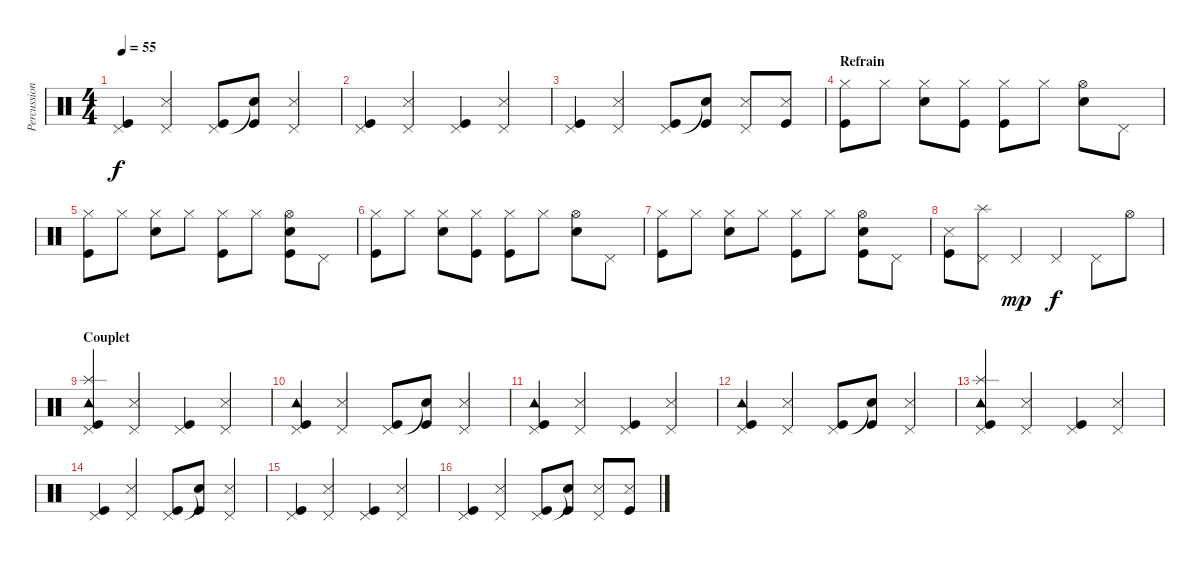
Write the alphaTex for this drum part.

\track ("Percussions" "Percussion") {instrument percussion}
\staff {score}
\articulation defaults
\ts (4 4)
\tempo 55
\clef neutral
\ks c
("Pedal Hi-Hat (hit)" "Kick (hit)").4{dy f} ("Pedal Hi-Hat (hit)" "Snare (side stick) 3").4 ("Pedal Hi-Hat (hit)" "Kick (hit)").8 ("Snare (hit)"{t} "Kick (hit)").8 ("Pedal Hi-Hat (hit)" "Snare (side stick) 3").4 |
("Pedal Hi-Hat (hit)" "Kick (hit)").4 ("Pedal Hi-Hat (hit)" "Snare (side stick) 3").4 ("Pedal Hi-Hat (hit)" "Kick (hit)").4 ("Pedal Hi-Hat (hit)" "Snare (side stick) 3").4 |
("Pedal Hi-Hat (hit)" "Kick (hit)").4 ("Pedal Hi-Hat (hit)" "Snare (side stick) 3").4 ("Pedal Hi-Hat (hit)" "Kick (hit)").8 ("Snare (hit)"{t} "Kick (hit)").8 ("Pedal Hi-Hat (hit)" "Snare (side stick) 3").8 ("Snare (side stick) 3" "Kick (hit)").8 |
\section ("" "Refrain")
("Hi-Hat (closed)" "Kick (hit)").8 "Hi-Hat (closed)".8 ("Hi-Hat (closed)" "Snare (hit) 2").8 ("Hi-Hat (closed)" "Kick (hit)").8 ("Hi-Hat (closed)" "Kick (hit)").8 "Hi-Hat (closed)".8 ("Hi-Hat (open)" "Snare (hit) 2").8 "Pedal Hi-Hat (hit)".8 |
("Hi-Hat (closed)" "Kick (hit)").8 "Hi-Hat (closed)".8 ("Hi-Hat (closed)" "Snare (hit) 2").8 "Hi-Hat (closed)".8 ("Hi-Hat (closed)" "Kick (hit)").8 "Hi-Hat (closed)".8 ("Hi-Hat (open)" "Snare (hit) 2" "Kick (hit)").8 "Pedal Hi-Hat (hit)".8 |
("Hi-Hat (closed)" "Kick (hit)").8 "Hi-Hat (closed)".8 ("Hi-Hat (closed)" "Snare (hit) 2").8 ("Hi-Hat (closed)" "Kick (hit)").8 ("Hi-Hat (closed)" "Kick (hit)").8 "Hi-Hat (closed)".8 ("Hi-Hat (open)" "Snare (hit) 2").8 "Pedal Hi-Hat (hit)".8 |
("Hi-Hat (closed)" "Kick (hit)").8 "Hi-Hat (closed)".8 ("Hi-Hat (closed)" "Snare (hit) 2").8 "Hi-Hat (closed)".8 ("Hi-Hat (closed)" "Kick (hit)").8 "Hi-Hat (closed)".8 ("Hi-Hat (open)" "Snare (hit) 2" "Kick (hit)").8 "Pedal Hi-Hat (hit)".8 |
("Snare (side stick) 3" "Kick (hit)").8 ("Pedal Hi-Hat (hit)" "Splash (hit)").8 "Pedal Hi-Hat (hit)".4{dy mp} "Pedal Hi-Hat (hit)".4{dy f} "Pedal Hi-Hat (hit)".8 "Hi-Hat (open)".8 |
\section ("" "Couplet")
("Pedal Hi-Hat (hit)" "Splash (hit)" "Tambourine (hit)" "Kick (hit)").4 ("Pedal Hi-Hat (hit)" "Snare (side stick) 3").4 ("Pedal Hi-Hat (hit)" "Kick (hit)").4 ("Pedal Hi-Hat (hit)" "Snare (side stick) 3").4 |
("Pedal Hi-Hat (hit)" "Tambourine (hit)" "Kick (hit)").4 ("Pedal Hi-Hat (hit)" "Snare (side stick) 3").4 ("Pedal Hi-Hat (hit)" "Kick (hit)").8 ("Snare (hit)"{t} "Kick (hit)").8 ("Pedal Hi-Hat (hit)" "Snare (side stick) 3").4 |
("Pedal Hi-Hat (hit)" "Tambourine (hit)" "Kick (hit)").4 ("Pedal Hi-Hat (hit)" "Snare (side stick) 3").4 ("Pedal Hi-Hat (hit)" "Kick (hit)").4 ("Pedal Hi-Hat (hit)" "Snare (side stick) 3").4 |
("Pedal Hi-Hat (hit)" "Tambourine (hit)" "Kick (hit)").4 ("Pedal Hi-Hat (hit)" "Snare (side stick) 3").4 ("Pedal Hi-Hat (hit)" "Kick (hit)").8 ("Snare (hit)"{t} "Kick (hit)").8 ("Pedal Hi-Hat (hit)" "Snare (side stick) 3").4 |
("Pedal Hi-Hat (hit)" "Splash (hit)" "Tambourine (hit)" "Kick (hit)").4 ("Pedal Hi-Hat (hit)" "Snare (side stick) 3").4 ("Pedal Hi-Hat (hit)" "Kick (hit)").4 ("Pedal Hi-Hat (hit)" "Snare (side stick) 3").4 |
("Pedal Hi-Hat (hit)" "Kick (hit)").4 ("Pedal Hi-Hat (hit)" "Snare (side stick) 3").4 ("Pedal Hi-Hat (hit)" "Kick (hit)").8 ("Snare (hit)"{t} "Kick (hit)").8 ("Pedal Hi-Hat (hit)" "Snare (side stick) 3").4 |
("Pedal Hi-Hat (hit)" "Kick (hit)").4 ("Pedal Hi-Hat (hit)" "Snare (side stick) 3").4 ("Pedal Hi-Hat (hit)" "Kick (hit)").4 ("Pedal Hi-Hat (hit)" "Snare (side stick) 3").4 |
("Pedal Hi-Hat (hit)" "Kick (hit)").4 ("Pedal Hi-Hat (hit)" "Snare (side stick) 3").4 ("Pedal Hi-Hat (hit)" "Kick (hit)").8 ("Snare (hit)"{t} "Kick (hit)").8 ("Pedal Hi-Hat (hit)" "Snare (side stick) 3").8 ("Snare (side stick) 3" "Kick (hit)").8
